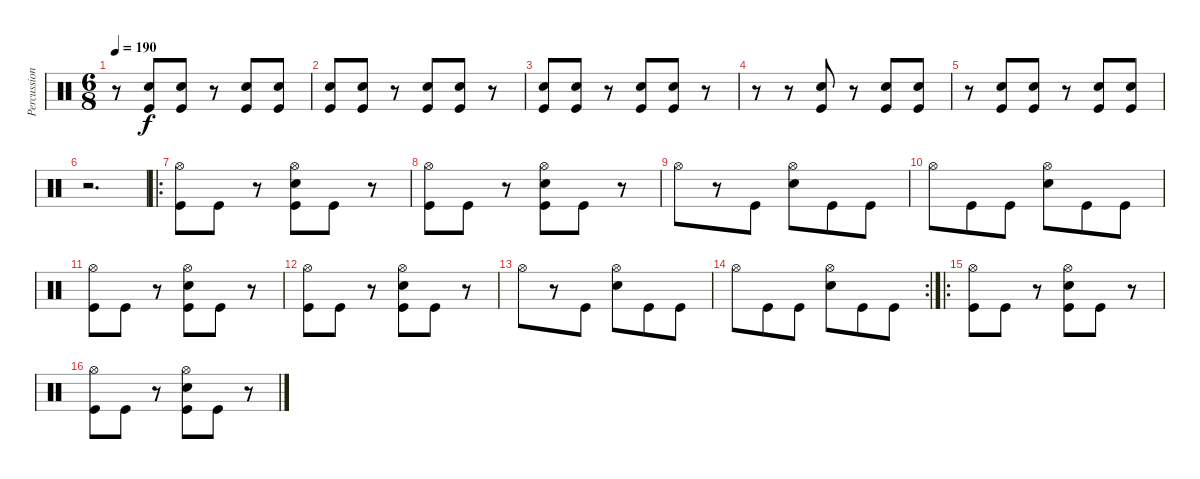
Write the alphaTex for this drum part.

\track ("Percussion" "Percussion") {instrument percussion}
\staff {score}
\articulation defaults
\ts (6 8)
\tempo 190
\clef neutral
\ks c
r.8{dy f} ("Snare (hit) 2" "Kick (hit)").8 ("Snare (hit) 2" "Kick (hit)").8 r.8 ("Snare (hit) 2" "Kick (hit)").8 ("Snare (hit) 2" "Kick (hit)").8 |
("Snare (hit) 2" "Kick (hit)").8 ("Snare (hit) 2" "Kick (hit)").8 r.8 ("Snare (hit) 2" "Kick (hit)").8 ("Snare (hit) 2" "Kick (hit)").8 r.8 |
("Snare (hit) 2" "Kick (hit)").8 ("Snare (hit) 2" "Kick (hit)").8 r.8 ("Snare (hit) 2" "Kick (hit)").8 ("Snare (hit) 2" "Kick (hit)").8 r.8 |
r.8 r.8 ("Snare (hit) 2" "Kick (hit)").8 r.8 ("Snare (hit) 2" "Kick (hit)").8 ("Snare (hit) 2" "Kick (hit)").8 |
r.8 ("Snare (hit) 2" "Kick (hit)").8 ("Snare (hit) 2" "Kick (hit)").8 r.8 ("Snare (hit) 2" "Kick (hit)").8 ("Snare (hit) 2" "Kick (hit)").8 |
r.2{d} |
\ro
("Hi-Hat (open)" "Kick (hit)").8 "Kick (hit)".8 r.8 ("Hi-Hat (open)" "Snare (hit) 2" "Kick (hit)").8 "Kick (hit)".8 r.8 |
("Hi-Hat (open)" "Kick (hit)").8 "Kick (hit)".8 r.8 ("Hi-Hat (open)" "Snare (hit) 2" "Kick (hit)").8 "Kick (hit)".8 r.8 |
"Hi-Hat (open)".8 r.8 "Kick (hit)".8 ("Hi-Hat (open)" "Snare (hit) 2").8 "Kick (hit)".8 "Kick (hit)".8 |
"Hi-Hat (open)".8 "Kick (hit)".8 "Kick (hit)".8 ("Hi-Hat (open)" "Snare (hit) 2").8 "Kick (hit)".8 "Kick (hit)".8 |
("Hi-Hat (open)" "Kick (hit)").8 "Kick (hit)".8 r.8 ("Hi-Hat (open)" "Snare (hit) 2" "Kick (hit)").8 "Kick (hit)".8 r.8 |
("Hi-Hat (open)" "Kick (hit)").8 "Kick (hit)".8 r.8 ("Hi-Hat (open)" "Snare (hit) 2" "Kick (hit)").8 "Kick (hit)".8 r.8 |
"Hi-Hat (open)".8 r.8 "Kick (hit)".8 ("Hi-Hat (open)" "Snare (hit) 2").8 "Kick (hit)".8 "Kick (hit)".8 |
\rc 2 "Hi-Hat (open)".8 "Kick (hit)".8 "Kick (hit)".8
("Hi-Hat (open)" "Snare (hit) 2").8 "Kick (hit)".8 "Kick (hit)".8 |
\ro
("Hi-Hat (open)" "Kick (hit)").8 "Kick (hit)".8 r.8 ("Hi-Hat (open)" "Snare (hit) 2" "Kick (hit)").8 "Kick (hit)".8 r.8 |
("Hi-Hat (open)" "Kick (hit)").8 "Kick (hit)".8 r.8 ("Hi-Hat (open)" "Snare (hit) 2" "Kick (hit)").8 "Kick (hit)".8 r.8
